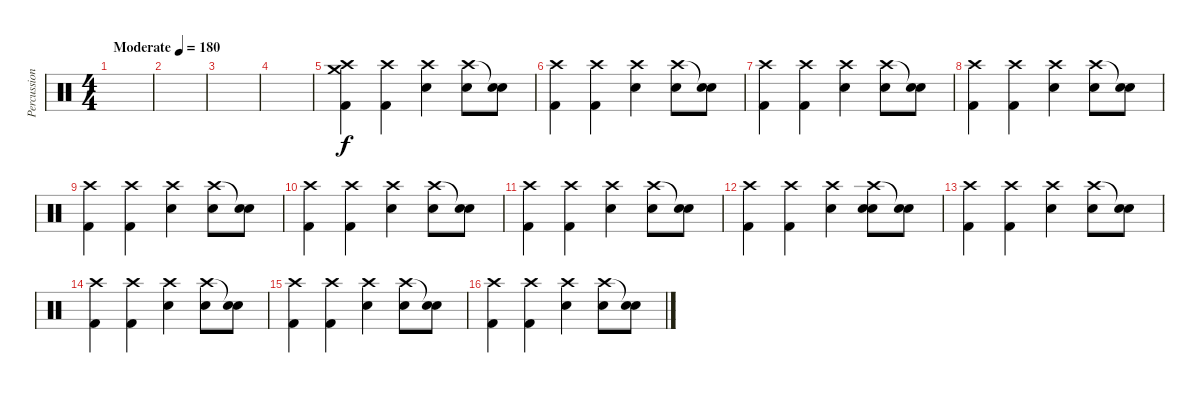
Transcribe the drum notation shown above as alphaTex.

\track ("Percussion" "Percussion") {instrument percussion}
\staff {score}
\articulation defaults
\ts (4 4)
\tempo (180 "Moderate")
\clef neutral
\ks c
|
|
|
|
("Crash medium (hit)" "Crash high (hit)" "Kick (hit) 2").4 ("Crash high (hit)" "Kick (hit) 2").4 ("Crash high (hit)" "Electric Snare (hit)").4 ("Crash high (hit)" "Snare (hit)").8 ("Snare (hit)"{t} "Electric Snare (hit)").8 |
("Crash high (hit)" "Kick (hit) 2").4 ("Crash high (hit)" "Kick (hit) 2").4 ("Crash high (hit)" "Electric Snare (hit)").4 ("Crash high (hit)" "Snare (hit)").8 ("Snare (hit)"{t} "Electric Snare (hit)").8 |
("Crash high (hit)" "Kick (hit) 2").4 ("Crash high (hit)" "Kick (hit) 2").4 ("Crash high (hit)" "Electric Snare (hit)").4 ("Crash high (hit)" "Snare (hit)").8 ("Snare (hit)"{t} "Electric Snare (hit)").8 |
("Crash high (hit)" "Kick (hit) 2").4 ("Crash high (hit)" "Kick (hit) 2").4 ("Crash high (hit)" "Electric Snare (hit)").4 ("Crash high (hit)" "Snare (hit)").8 ("Snare (hit)"{t} "Electric Snare (hit)").8 |
("Crash high (hit)" "Kick (hit) 2").4 ("Crash high (hit)" "Kick (hit) 2").4 ("Crash high (hit)" "Electric Snare (hit)").4 ("Crash high (hit)" "Snare (hit)").8 ("Snare (hit)"{t} "Electric Snare (hit)").8 |
("Crash high (hit)" "Kick (hit) 2").4 ("Crash high (hit)" "Kick (hit) 2").4 ("Crash high (hit)" "Electric Snare (hit)").4 ("Crash high (hit)" "Snare (hit)").8 ("Snare (hit)"{t} "Electric Snare (hit)").8 |
("Crash high (hit)" "Kick (hit) 2").4 ("Crash high (hit)" "Kick (hit) 2").4 ("Crash high (hit)" "Electric Snare (hit)").4 ("Crash high (hit)" "Snare (hit)").8 ("Snare (hit)"{t} "Electric Snare (hit)").8 |
("Crash high (hit)" "Kick (hit) 2").4 ("Crash high (hit)" "Kick (hit) 2").4 ("Crash high (hit)" "Electric Snare (hit)").4 ("Crash high (hit)" "Electric Snare (hit)" "Snare (hit)").8 ("Snare (hit)"{t} "Electric Snare (hit)").8 |
("Crash high (hit)" "Kick (hit) 2").4 ("Crash high (hit)" "Kick (hit) 2").4 ("Crash high (hit)" "Electric Snare (hit)").4 ("Crash high (hit)" "Snare (hit)").8 ("Snare (hit)"{t} "Electric Snare (hit)").8 |
("Crash high (hit)" "Kick (hit) 2").4 ("Crash high (hit)" "Kick (hit) 2").4 ("Crash high (hit)" "Electric Snare (hit)").4 ("Crash high (hit)" "Snare (hit)").8 ("Snare (hit)"{t} "Electric Snare (hit)").8 |
("Crash high (hit)" "Kick (hit) 2").4 ("Crash high (hit)" "Kick (hit) 2").4 ("Crash high (hit)" "Electric Snare (hit)").4 ("Crash high (hit)" "Snare (hit)").8 ("Snare (hit)"{t} "Electric Snare (hit)").8 |
("Crash high (hit)" "Kick (hit) 2").4 ("Crash high (hit)" "Kick (hit) 2").4 ("Crash high (hit)" "Electric Snare (hit)").4 ("Crash high (hit)" "Snare (hit)").8 ("Snare (hit)"{t} "Electric Snare (hit)").8
